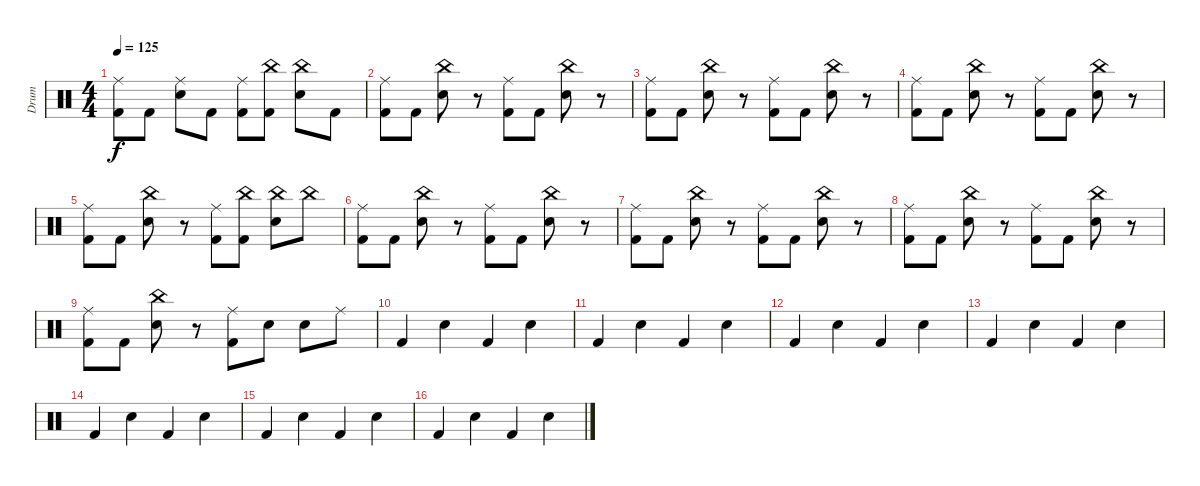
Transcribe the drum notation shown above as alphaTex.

\track ("Drum" "Drum") {instrument percussion}
\staff {score}
\articulation defaults
\ts (4 4)
\tempo 125
\clef neutral
\ks c
("Ride (middle)" "Kick (hit) 2").8{dy f} "Kick (hit) 2".8 ("Ride (middle)" "Snare (hit) 2").8 "Kick (hit) 2".8 ("Ride (middle)" "Kick (hit) 2").8 ("China (hit)" "Kick (hit) 2").8 ("China (hit)" "Snare (hit) 2").8 "Kick (hit) 2".8 |
("Ride (middle)" "Kick (hit) 2").8 "Kick (hit) 2".8 ("China (hit)" "Snare (hit) 2").8 r.8 ("Ride (middle)" "Kick (hit) 2").8 "Kick (hit) 2".8 ("China (hit)" "Snare (hit) 2").8 r.8 |
("Ride (middle)" "Kick (hit) 2").8 "Kick (hit) 2".8 ("China (hit)" "Snare (hit) 2").8 r.8 ("Ride (middle)" "Kick (hit) 2").8 "Kick (hit) 2".8 ("China (hit)" "Snare (hit) 2").8 r.8 |
("Ride (middle)" "Kick (hit) 2").8 "Kick (hit) 2".8 ("China (hit)" "Snare (hit) 2").8 r.8 ("Ride (middle)" "Kick (hit) 2").8 "Kick (hit) 2".8 ("China (hit)" "Snare (hit) 2").8 r.8 |
("Ride (middle)" "Kick (hit) 2").8 "Kick (hit) 2".8 ("China (hit)" "Snare (hit) 2").8 r.8 ("Ride (middle)" "Kick (hit) 2").8 ("China (hit)" "Kick (hit) 2").8 ("China (hit)" "Snare (hit) 2").8 "China (hit)".8 |
("Ride (middle)" "Kick (hit) 2").8 "Kick (hit) 2".8 ("China (hit)" "Snare (hit) 2").8 r.8 ("Ride (middle)" "Kick (hit) 2").8 "Kick (hit) 2".8 ("China (hit)" "Snare (hit) 2").8 r.8 |
("Ride (middle)" "Kick (hit) 2").8 "Kick (hit) 2".8 ("China (hit)" "Snare (hit) 2").8 r.8 ("Ride (middle)" "Kick (hit) 2").8 "Kick (hit) 2".8 ("China (hit)" "Snare (hit) 2").8 r.8 |
("Ride (middle)" "Kick (hit) 2").8 "Kick (hit) 2".8 ("China (hit)" "Snare (hit) 2").8 r.8 ("Ride (middle)" "Kick (hit) 2").8 "Kick (hit) 2".8 ("China (hit)" "Snare (hit) 2").8 r.8 |
("Ride (middle)" "Kick (hit) 2").8 "Kick (hit) 2".8 ("China (hit)" "Snare (hit) 2").8 r.8 ("Ride (middle)" "Kick (hit) 2").8 "Snare (hit) 2".8 "Snare (hit) 2".8 "Ride (middle)".8 |
"Kick (hit) 2".4 "Snare (hit) 2".4 "Kick (hit) 2".4 "Snare (hit) 2".4 |
"Kick (hit) 2".4 "Snare (hit) 2".4 "Kick (hit) 2".4 "Snare (hit) 2".4 |
"Kick (hit) 2".4 "Snare (hit) 2".4 "Kick (hit) 2".4 "Snare (hit) 2".4 |
"Kick (hit) 2".4 "Snare (hit) 2".4 "Kick (hit) 2".4 "Snare (hit) 2".4 |
"Kick (hit) 2".4 "Snare (hit) 2".4 "Kick (hit) 2".4 "Snare (hit) 2".4 |
"Kick (hit) 2".4 "Snare (hit) 2".4 "Kick (hit) 2".4 "Snare (hit) 2".4 |
"Kick (hit) 2".4 "Snare (hit) 2".4 "Kick (hit) 2".4 "Snare (hit) 2".4
